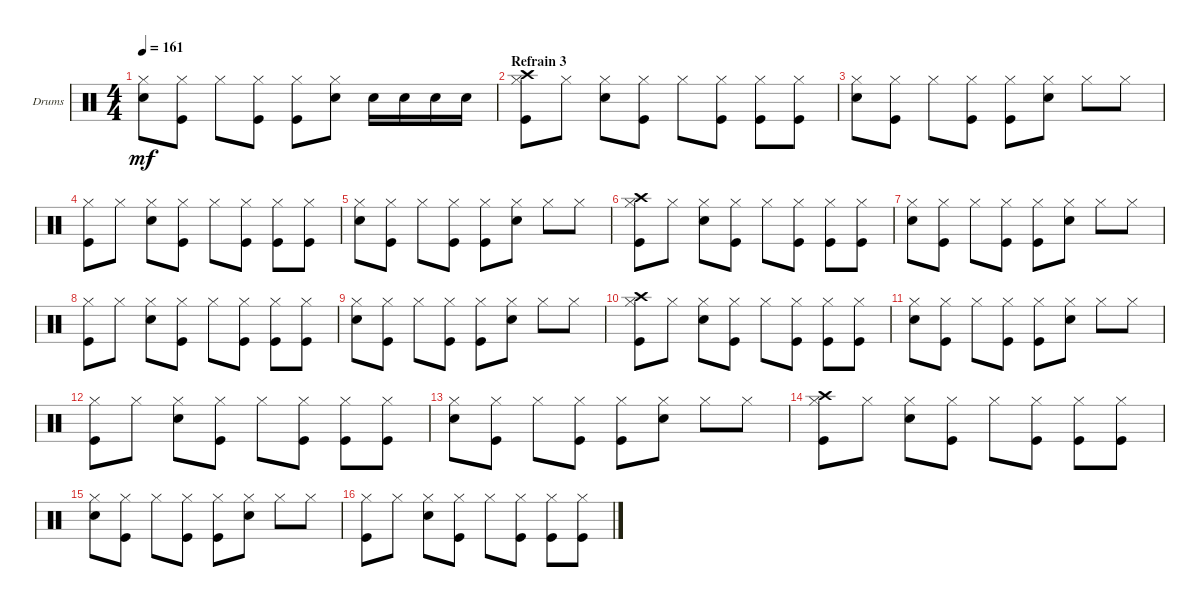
\defaultSystemsLayout 4
\bracketExtendMode groupsimilarinstruments
\firstSystemTrackNameOrientation horizontal
\otherSystemsTrackNameOrientation horizontal
\chordDiagramsInScore
\track ("Drumkit" "Drums") {instrument percussion}
\staff {score}
\articulation defaults
\ts (4 4)
\tempo 161
\clef neutral
\ks c
("Hi-Hat (closed)" "Snare (hit) 2").8{dy mf} ("Hi-Hat (closed)" "Kick (hit)").8 "Hi-Hat (closed)".8 ("Hi-Hat (closed)" "Kick (hit)").8 ("Hi-Hat (closed)" "Kick (hit)").8 ("Hi-Hat (closed)" "Snare (hit) 2").8 "Snare (hit) 2".16 "Snare (hit) 2".16 "Snare (hit) 2".16 "Snare (hit) 2".16 |
\section ("" "Refrain 3")
("Hi-Hat (closed)" "Kick (hit)" "Crash high (hit)").8 "Hi-Hat (closed)".8 ("Hi-Hat (closed)" "Snare (hit) 2").8 ("Hi-Hat (closed)" "Kick (hit)").8 "Hi-Hat (closed)".8 ("Hi-Hat (closed)" "Kick (hit)").8 ("Hi-Hat (closed)" "Kick (hit)").8 ("Hi-Hat (closed)" "Kick (hit)").8 |
("Hi-Hat (closed)" "Snare (hit) 2").8 ("Hi-Hat (closed)" "Kick (hit)").8 "Hi-Hat (closed)".8 ("Hi-Hat (closed)" "Kick (hit)").8 ("Hi-Hat (closed)" "Kick (hit)").8 ("Hi-Hat (closed)" "Snare (hit) 2").8 "Hi-Hat (closed)".8 "Hi-Hat (closed)".8 |
("Hi-Hat (closed)" "Kick (hit)").8 "Hi-Hat (closed)".8 ("Hi-Hat (closed)" "Snare (hit) 2").8 ("Hi-Hat (closed)" "Kick (hit)").8 "Hi-Hat (closed)".8 ("Hi-Hat (closed)" "Kick (hit)").8 ("Hi-Hat (closed)" "Kick (hit)").8 ("Hi-Hat (closed)" "Kick (hit)").8 |
("Hi-Hat (closed)" "Snare (hit) 2").8 ("Hi-Hat (closed)" "Kick (hit)").8 "Hi-Hat (closed)".8 ("Hi-Hat (closed)" "Kick (hit)").8 ("Hi-Hat (closed)" "Kick (hit)").8 ("Hi-Hat (closed)" "Snare (hit) 2").8 "Hi-Hat (closed)".8 "Hi-Hat (closed)".8 |
("Hi-Hat (closed)" "Kick (hit)" "Crash high (hit)").8 "Hi-Hat (closed)".8 ("Hi-Hat (closed)" "Snare (hit) 2").8 ("Hi-Hat (closed)" "Kick (hit)").8 "Hi-Hat (closed)".8 ("Hi-Hat (closed)" "Kick (hit)").8 ("Hi-Hat (closed)" "Kick (hit)").8 ("Hi-Hat (closed)" "Kick (hit)").8 |
("Hi-Hat (closed)" "Snare (hit) 2").8 ("Hi-Hat (closed)" "Kick (hit)").8 "Hi-Hat (closed)".8 ("Hi-Hat (closed)" "Kick (hit)").8 ("Hi-Hat (closed)" "Kick (hit)").8 ("Hi-Hat (closed)" "Snare (hit) 2").8 "Hi-Hat (closed)".8 "Hi-Hat (closed)".8 |
("Hi-Hat (closed)" "Kick (hit)").8 "Hi-Hat (closed)".8 ("Hi-Hat (closed)" "Snare (hit) 2").8 ("Hi-Hat (closed)" "Kick (hit)").8 "Hi-Hat (closed)".8 ("Hi-Hat (closed)" "Kick (hit)").8 ("Hi-Hat (closed)" "Kick (hit)").8 ("Hi-Hat (closed)" "Kick (hit)").8 |
("Hi-Hat (closed)" "Snare (hit) 2").8 ("Hi-Hat (closed)" "Kick (hit)").8 "Hi-Hat (closed)".8 ("Hi-Hat (closed)" "Kick (hit)").8 ("Hi-Hat (closed)" "Kick (hit)").8 ("Hi-Hat (closed)" "Snare (hit) 2").8 "Hi-Hat (closed)".8 "Hi-Hat (closed)".8 |
("Hi-Hat (closed)" "Kick (hit)" "Crash high (hit)").8 "Hi-Hat (closed)".8 ("Hi-Hat (closed)" "Snare (hit) 2").8 ("Hi-Hat (closed)" "Kick (hit)").8 "Hi-Hat (closed)".8 ("Hi-Hat (closed)" "Kick (hit)").8 ("Hi-Hat (closed)" "Kick (hit)").8 ("Hi-Hat (closed)" "Kick (hit)").8 |
("Hi-Hat (closed)" "Snare (hit) 2").8 ("Hi-Hat (closed)" "Kick (hit)").8 "Hi-Hat (closed)".8 ("Hi-Hat (closed)" "Kick (hit)").8 ("Hi-Hat (closed)" "Kick (hit)").8 ("Hi-Hat (closed)" "Snare (hit) 2").8 "Hi-Hat (closed)".8 "Hi-Hat (closed)".8 |
("Hi-Hat (closed)" "Kick (hit)").8 "Hi-Hat (closed)".8 ("Hi-Hat (closed)" "Snare (hit) 2").8 ("Hi-Hat (closed)" "Kick (hit)").8 "Hi-Hat (closed)".8 ("Hi-Hat (closed)" "Kick (hit)").8 ("Hi-Hat (closed)" "Kick (hit)").8 ("Hi-Hat (closed)" "Kick (hit)").8 |
("Hi-Hat (closed)" "Snare (hit) 2").8 ("Hi-Hat (closed)" "Kick (hit)").8 "Hi-Hat (closed)".8 ("Hi-Hat (closed)" "Kick (hit)").8 ("Hi-Hat (closed)" "Kick (hit)").8 ("Hi-Hat (closed)" "Snare (hit) 2").8 "Hi-Hat (closed)".8 "Hi-Hat (closed)".8 |
("Hi-Hat (closed)" "Kick (hit)" "Crash high (hit)").8 "Hi-Hat (closed)".8 ("Hi-Hat (closed)" "Snare (hit) 2").8 ("Hi-Hat (closed)" "Kick (hit)").8 "Hi-Hat (closed)".8 ("Hi-Hat (closed)" "Kick (hit)").8 ("Hi-Hat (closed)" "Kick (hit)").8 ("Hi-Hat (closed)" "Kick (hit)").8 |
("Hi-Hat (closed)" "Snare (hit) 2").8 ("Hi-Hat (closed)" "Kick (hit)").8 "Hi-Hat (closed)".8 ("Hi-Hat (closed)" "Kick (hit)").8 ("Hi-Hat (closed)" "Kick (hit)").8 ("Hi-Hat (closed)" "Snare (hit) 2").8 "Hi-Hat (closed)".8 "Hi-Hat (closed)".8 |
("Hi-Hat (closed)" "Kick (hit)").8 "Hi-Hat (closed)".8 ("Hi-Hat (closed)" "Snare (hit) 2").8 ("Hi-Hat (closed)" "Kick (hit)").8 "Hi-Hat (closed)".8 ("Hi-Hat (closed)" "Kick (hit)").8 ("Hi-Hat (closed)" "Kick (hit)").8 ("Hi-Hat (closed)" "Kick (hit)").8
